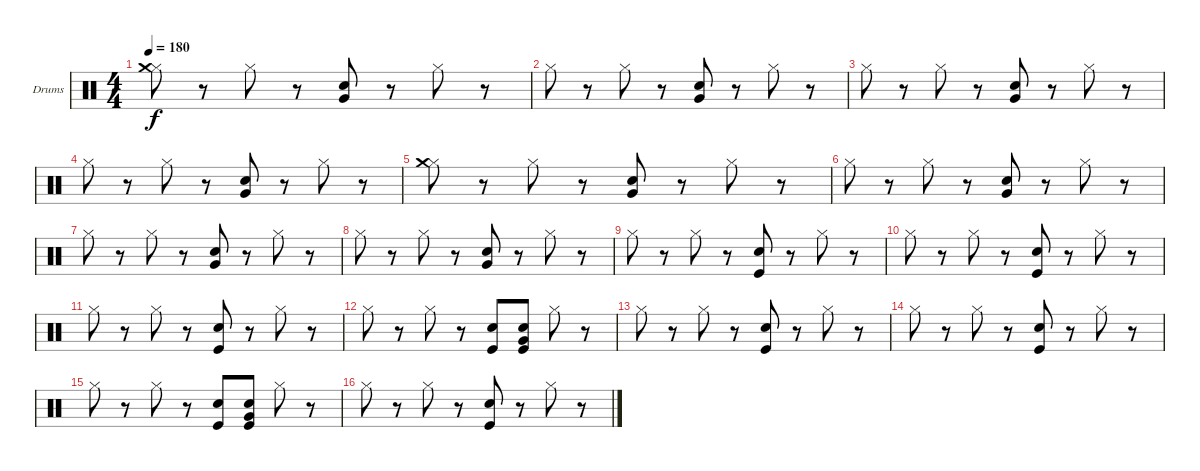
\bracketExtendMode groupsimilarinstruments
\firstSystemTrackNameOrientation horizontal
\otherSystemsTrackNameOrientation horizontal
\track ("Drumkit" "Drums") {instrument percussion}
\staff {score}
\articulation defaults
\ts (4 4)
\tempo 180
\clef neutral
\ks c
("Hi-Hat (closed)" "Crash medium (hit)").8{dy f} r.8 "Hi-Hat (closed)".8 r.8 ("Snare (hit) 2" "Very Low Tom (hit)").8 r.8 "Hi-Hat (closed)".8 r.8 |
"Hi-Hat (closed)".8 r.8 "Hi-Hat (closed)".8 r.8 ("Snare (hit) 2" "Very Low Tom (hit)").8 r.8 "Hi-Hat (closed)".8 r.8 |
"Hi-Hat (closed)".8 r.8 "Hi-Hat (closed)".8 r.8 ("Snare (hit) 2" "Very Low Tom (hit)").8 r.8 "Hi-Hat (closed)".8 r.8 |
"Hi-Hat (closed)".8 r.8 "Hi-Hat (closed)".8 r.8 ("Snare (hit) 2" "Very Low Tom (hit)").8 r.8 "Hi-Hat (closed)".8 r.8 |
("Hi-Hat (closed)" "Crash medium (hit)").8 r.8 "Hi-Hat (closed)".8 r.8 ("Snare (hit) 2" "Very Low Tom (hit)").8 r.8 "Hi-Hat (closed)".8 r.8 |
"Hi-Hat (closed)".8 r.8 "Hi-Hat (closed)".8 r.8 ("Snare (hit) 2" "Very Low Tom (hit)").8 r.8 "Hi-Hat (closed)".8 r.8 |
"Hi-Hat (closed)".8 r.8 "Hi-Hat (closed)".8 r.8 ("Snare (hit) 2" "Very Low Tom (hit)").8 r.8 "Hi-Hat (closed)".8 r.8 |
"Hi-Hat (closed)".8 r.8 "Hi-Hat (closed)".8 r.8 ("Snare (hit) 2" "Very Low Tom (hit)").8 r.8 "Hi-Hat (closed)".8 r.8 |
"Hi-Hat (closed)".8 r.8 "Hi-Hat (closed)".8 r.8 ("Snare (hit) 2" "Kick (hit)").8 r.8 "Hi-Hat (closed)".8 r.8 |
"Hi-Hat (closed)".8 r.8 "Hi-Hat (closed)".8 r.8 ("Snare (hit) 2" "Kick (hit)").8 r.8 "Hi-Hat (closed)".8 r.8 |
"Hi-Hat (closed)".8 r.8 "Hi-Hat (closed)".8 r.8 ("Snare (hit) 2" "Kick (hit)").8 r.8 "Hi-Hat (closed)".8 r.8 |
"Hi-Hat (closed)".8 r.8 "Hi-Hat (closed)".8 r.8 ("Snare (hit) 2" "Kick (hit)").8 ("Snare (hit) 2" "Kick (hit)" "Very Low Tom (hit)").8 "Hi-Hat (closed)".8 r.8 |
"Hi-Hat (closed)".8 r.8 "Hi-Hat (closed)".8 r.8 ("Snare (hit) 2" "Kick (hit)").8 r.8 "Hi-Hat (closed)".8 r.8 |
"Hi-Hat (closed)".8 r.8 "Hi-Hat (closed)".8 r.8 ("Snare (hit) 2" "Kick (hit)").8 r.8 "Hi-Hat (closed)".8 r.8 |
"Hi-Hat (closed)".8 r.8 "Hi-Hat (closed)".8 r.8 ("Snare (hit) 2" "Kick (hit)").8 ("Snare (hit) 2" "Kick (hit)" "Very Low Tom (hit)").8 "Hi-Hat (closed)".8 r.8 |
"Hi-Hat (closed)".8 r.8 "Hi-Hat (closed)".8 r.8 ("Snare (hit) 2" "Kick (hit)").8 r.8 "Hi-Hat (closed)".8 r.8
